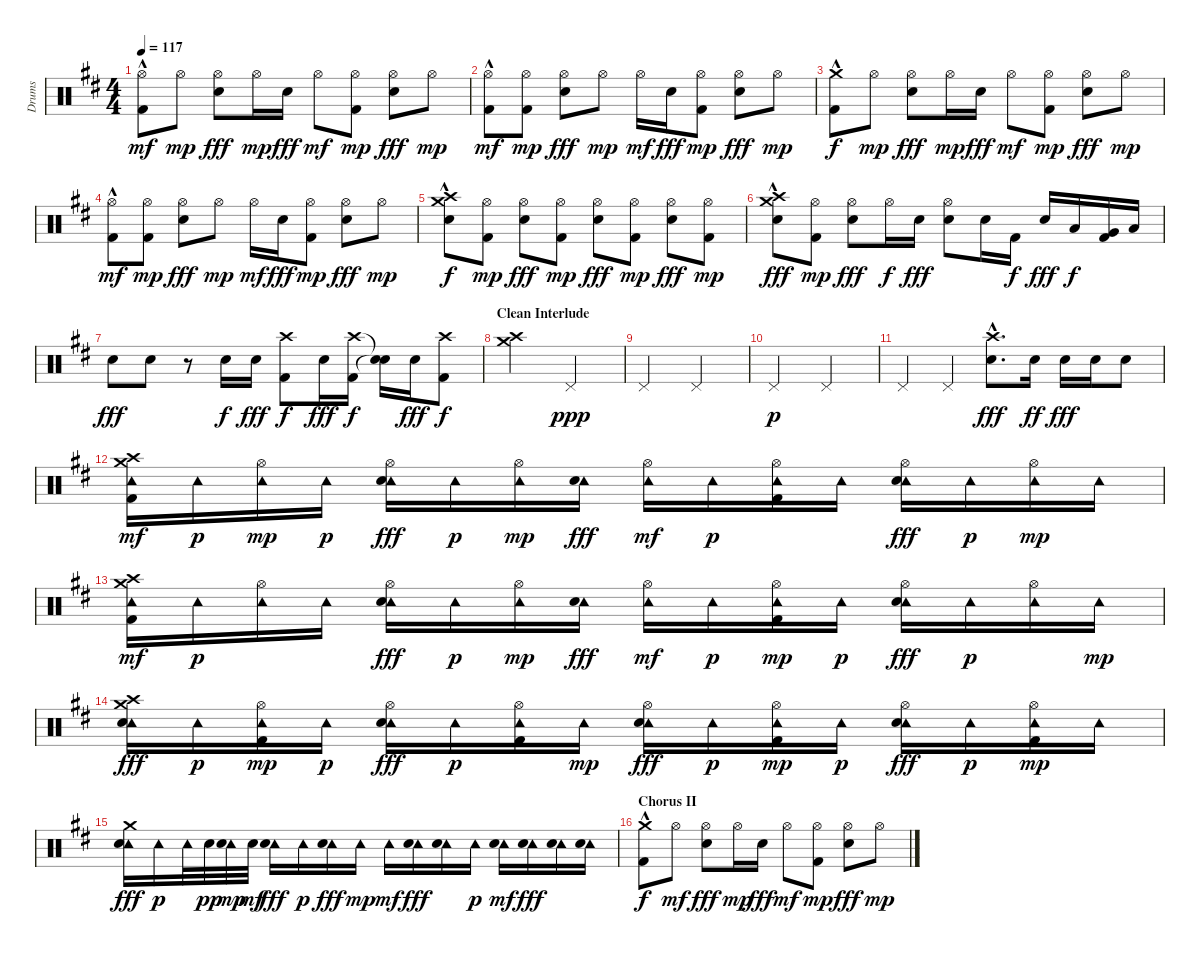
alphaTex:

\track ("Drums" "Drums") {instrument percussion}
\staff {score}
\articulation defaults
\ts (4 4)
\tempo 117
\clef neutral
\ks d
("Hi-Hat (open)" "Kick (hit) 2"{hac}).8{dy mf} "Hi-Hat (open)".8{dy mp} ("Hi-Hat (open)" "Electric Snare (hit)").8{dy fff} "Hi-Hat (open)".16{dy mp} "Electric Snare (hit)".16{dy fff} "Hi-Hat (open)".8{dy mf} ("Hi-Hat (open)" "Kick (hit) 2").8{dy mp} ("Hi-Hat (open)" "Electric Snare (hit)").8{dy fff} "Hi-Hat (open)".8{dy mp} |
("Hi-Hat (open)" "Kick (hit) 2"{hac}).8{dy mf} ("Hi-Hat (open)" "Kick (hit) 2").8{dy mp} ("Hi-Hat (open)" "Electric Snare (hit)").8{dy fff} "Hi-Hat (open)".8{dy mp} "Hi-Hat (open)".16{dy mf} "Electric Snare (hit)".16{dy fff} ("Hi-Hat (open)" "Kick (hit) 2").8{dy mp} ("Hi-Hat (open)" "Electric Snare (hit)").8{dy fff} "Hi-Hat (open)".8{dy mp} |
("Crash medium (hit)" "Kick (hit) 2"{hac}).8{dy f} "Hi-Hat (open)".8{dy mp} ("Hi-Hat (open)" "Electric Snare (hit)").8{dy fff} "Hi-Hat (open)".16{dy mp} "Electric Snare (hit)".16{dy fff} "Hi-Hat (open)".8{dy mf} ("Hi-Hat (open)" "Kick (hit) 2").8{dy mp} ("Hi-Hat (open)" "Electric Snare (hit)").8{dy fff} "Hi-Hat (open)".8{dy mp} |
("Hi-Hat (open)" "Kick (hit) 2"{hac}).8{dy mf} ("Hi-Hat (open)" "Kick (hit) 2").8{dy mp} ("Hi-Hat (open)" "Electric Snare (hit)").8{dy fff} "Hi-Hat (open)".8{dy mp} "Hi-Hat (open)".16{dy mf} "Electric Snare (hit)".16{dy fff} ("Hi-Hat (open)" "Kick (hit) 2").8{dy mp} ("Hi-Hat (open)" "Electric Snare (hit)").8{dy fff} "Hi-Hat (open)".8{dy mp} |
("Crash high (hit)" "Crash medium (hit)" "Electric Snare (hit)"{hac}).8{dy f} ("Hi-Hat (open)" "Kick (hit) 2").8{dy mp} ("Hi-Hat (open)" "Electric Snare (hit)").8{dy fff} ("Hi-Hat (open)" "Kick (hit) 2").8{dy mp} ("Hi-Hat (open)" "Electric Snare (hit)").8{dy fff} ("Hi-Hat (open)" "Kick (hit) 2").8{dy mp} ("Hi-Hat (open)" "Electric Snare (hit)").8{dy fff} ("Hi-Hat (open)" "Kick (hit) 2").8{dy mp} |
("Crash high (hit)" "Crash medium (hit)" "Electric Snare (hit)"{hac}).8{dy fff} ("Hi-Hat (open)" "Kick (hit) 2").8{dy mp} ("Hi-Hat (open)" "Electric Snare (hit)").8{dy fff} "Hi-Hat (open)".16{dy f} "Electric Snare (hit)".16{dy fff} ("Hi-Hat (open)" "Electric Snare (hit)").8 "Electric Snare (hit)".16 "Kick (hit) 2".16{dy f} "Electric Snare (hit)".16{dy fff} "Low Tom (hit)".16{dy f} ("Kick (hit) 2" "Very Low Tom (hit)").16 "Low Floor Tom (hit)".16 |
"Electric Snare (hit)".8{dy fff} "Electric Snare (hit)".8 r.8 "Snare (hit) 2".16{dy f} "Electric Snare (hit)".16{dy fff} ("Crash high (hit)" "Kick (hit) 2").8{dy f} "Electric Snare (hit)".16{dy fff} ("Crash high (hit)" "Kick (hit) 2").16{dy f} ("Snare (hit)"{t} "Snare (hit)"{t}).16 "Electric Snare (hit)".16{dy fff} ("Crash high (hit)" "Kick (hit) 2").8{dy f} |
\section ("" "Clean Interlude")
("Crash medium (hit)" "Crash high (hit)").2 "Pedal Hi-Hat (hit)".2{dy ppp} |
"Pedal Hi-Hat (hit)".2 "Pedal Hi-Hat (hit)".2 |
"Pedal Hi-Hat (hit)".2{dy p} "Pedal Hi-Hat (hit)".2 |
"Pedal Hi-Hat (hit)".4 "Pedal Hi-Hat (hit)".4 ("Crash high (hit)"{hac} "Electric Snare (hit)").8{d dy fff} "Electric Snare (hit)".16{dy ff} "Electric Snare (hit)".16{dy fff} "Electric Snare (hit)".16 "Electric Snare (hit)".8 |
("Tambourine (hit)" "Crash medium (hit)" "Crash high (hit)" "Kick (hit) 2").16{dy mf} "Tambourine (hit)".16{dy p} ("Tambourine (hit)" "Hi-Hat (open)").16{dy mp} "Tambourine (hit)".16{dy p} ("Tambourine (hit)" "Hi-Hat (open)" "Electric Snare (hit)").16{dy fff} "Tambourine (hit)".16{dy p} ("Tambourine (hit)" "Hi-Hat (open)").16{dy mp} ("Tambourine (hit)" "Electric Snare (hit)").16{dy fff} ("Tambourine (hit)" "Hi-Hat (open)").16{dy mf} "Tambourine (hit)".16{dy p} ("Hi-Hat (open)" "Tambourine (hit)" "Kick (hit) 2").16 "Tambourine (hit)".16 ("Tambourine (hit)" "Hi-Hat (open)" "Electric Snare (hit)").16{dy fff} "Tambourine (hit)".16{dy p} ("Tambourine (hit)" "Hi-Hat (open)").16{dy mp} "Tambourine (hit)".16 |
("Tambourine (hit)" "Crash medium (hit)" "Crash high (hit)" "Kick (hit) 2").16{dy mf} "Tambourine (hit)".16{dy p} ("Hi-Hat (open)" "Tambourine (hit)").16 "Tambourine (hit)".16 ("Tambourine (hit)" "Hi-Hat (open)" "Electric Snare (hit)").16{dy fff} "Tambourine (hit)".16{dy p} ("Tambourine (hit)" "Hi-Hat (open)").16{dy mp} ("Tambourine (hit)" "Electric Snare (hit)").16{dy fff} ("Tambourine (hit)" "Hi-Hat (open)").16{dy mf} "Tambourine (hit)".16{dy p} ("Tambourine (hit)" "Hi-Hat (open)" "Kick (hit) 2").16{dy mp} "Tambourine (hit)".16{dy p} ("Tambourine (hit)" "Hi-Hat (open)" "Electric Snare (hit)").16{dy fff} "Tambourine (hit)".16{dy p} ("Hi-Hat (open)" "Tambourine (hit)").16 "Tambourine (hit)".16{dy mp} |
("Tambourine (hit)" "Crash medium (hit)" "Crash high (hit)" "Electric Snare (hit)").16{dy fff} "Tambourine (hit)".16{dy p} ("Tambourine (hit)" "Hi-Hat (open)" "Kick (hit) 2").16{dy mp} "Tambourine (hit)".16{dy p} ("Tambourine (hit)" "Hi-Hat (open)" "Electric Snare (hit)").16{dy fff} "Tambourine (hit)".16{dy p} ("Hi-Hat (open)" "Tambourine (hit)" "Kick (hit) 2").16 "Tambourine (hit)".16{dy mp} ("Hi-Hat (open)" "Tambourine (hit)" "Electric Snare (hit)").16{dy fff} "Tambourine (hit)".16{dy p} ("Tambourine (hit)" "Hi-Hat (open)" "Kick (hit) 2").16{dy mp} "Tambourine (hit)".16{dy p} ("Tambourine (hit)" "Hi-Hat (open)" "Electric Snare (hit)").16{dy fff} "Tambourine (hit)".16{dy p} ("Tambourine (hit)" "Hi-Hat (open)" "Kick (hit) 2").16{dy mp} "Tambourine (hit)".16 |
("Tambourine (hit)" "Crash medium (hit)" "Electric Snare (hit)").16{dy fff} "Tambourine (hit)".16{dy p} "Tambourine (hit)".32 "Electric Snare (hit)".32{dy pp} ("Tambourine (hit)" "Electric Snare (hit)").32{dy mp} "Electric Snare (hit)".32{dy mf} ("Tambourine (hit)" "Electric Snare (hit)").16{dy fff} "Tambourine (hit)".16{dy p} ("Tambourine (hit)" "Electric Snare (hit)").16{dy fff} "Tambourine (hit)".16{dy mp} "Tambourine (hit)".16{dy mf} ("Tambourine (hit)" "Electric Snare (hit)").16{dy fff} ("Tambourine (hit)" "Electric Snare (hit)").16 "Tambourine (hit)".16{dy p} ("Tambourine (hit)" "Electric Snare (hit)").16{dy mf} ("Tambourine (hit)" "Electric Snare (hit)").16{dy fff} ("Tambourine (hit)" "Electric Snare (hit)").16 ("Tambourine (hit)" "Electric Snare (hit)").16 |
\section ("" "Chorus II")
("Crash medium (hit)" "Kick (hit) 2"{hac}).8{dy f} "Hi-Hat (open)".8{dy mf} ("Hi-Hat (open)" "Electric Snare (hit)").8{dy fff} "Hi-Hat (open)".16{dy mp} "Electric Snare (hit)".16{dy fff} "Hi-Hat (open)".8{dy mf} ("Hi-Hat (open)" "Kick (hit) 2").8{dy mp} ("Hi-Hat (open)" "Electric Snare (hit)").8{dy fff} "Hi-Hat (open)".8{dy mp}
